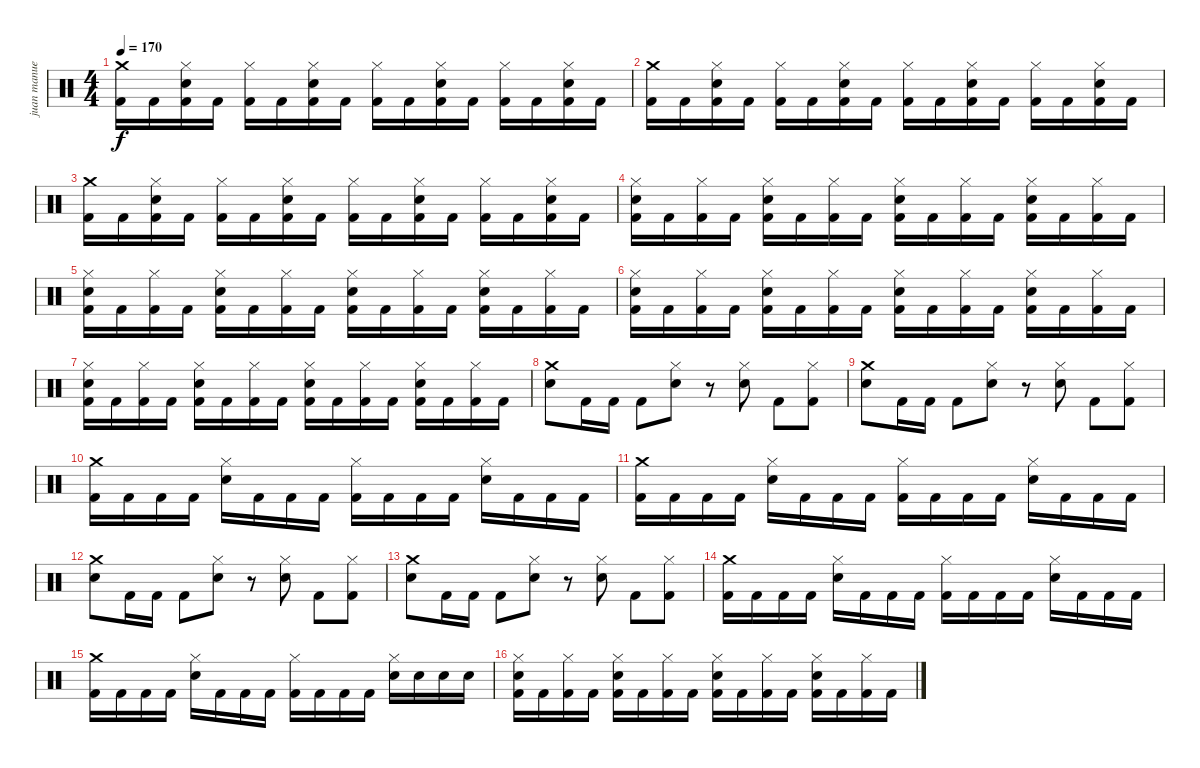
\track ("juan manuel" "juan manue") {instrument percussion}
\staff {score}
\articulation defaults
\ts (4 4)
\tempo 170
\clef neutral
\ks c
("Crash medium (hit)" "Kick (hit) 2").16{dy f} "Kick (hit) 2".16 ("Hi-Hat (closed)" "Electric Snare (hit)" "Kick (hit) 2").16 "Kick (hit) 2".16 ("Hi-Hat (closed)" "Kick (hit) 2").16 "Kick (hit) 2".16 ("Hi-Hat (closed)" "Electric Snare (hit)" "Kick (hit) 2").16 "Kick (hit) 2".16 ("Hi-Hat (closed)" "Kick (hit) 2").16 "Kick (hit) 2".16 ("Hi-Hat (closed)" "Electric Snare (hit)" "Kick (hit) 2").16 "Kick (hit) 2".16 ("Hi-Hat (closed)" "Kick (hit) 2").16 "Kick (hit) 2".16 ("Hi-Hat (closed)" "Electric Snare (hit)" "Kick (hit) 2").16 "Kick (hit) 2".16 |
("Crash medium (hit)" "Kick (hit) 2").16 "Kick (hit) 2".16 ("Hi-Hat (closed)" "Electric Snare (hit)" "Kick (hit) 2").16 "Kick (hit) 2".16 ("Hi-Hat (closed)" "Kick (hit) 2").16 "Kick (hit) 2".16 ("Hi-Hat (closed)" "Electric Snare (hit)" "Kick (hit) 2").16 "Kick (hit) 2".16 ("Hi-Hat (closed)" "Kick (hit) 2").16 "Kick (hit) 2".16 ("Hi-Hat (closed)" "Electric Snare (hit)" "Kick (hit) 2").16 "Kick (hit) 2".16 ("Hi-Hat (closed)" "Kick (hit) 2").16 "Kick (hit) 2".16 ("Hi-Hat (closed)" "Electric Snare (hit)" "Kick (hit) 2").16 "Kick (hit) 2".16 |
("Crash medium (hit)" "Kick (hit) 2").16 "Kick (hit) 2".16 ("Hi-Hat (closed)" "Electric Snare (hit)" "Kick (hit) 2").16 "Kick (hit) 2".16 ("Hi-Hat (closed)" "Kick (hit) 2").16 "Kick (hit) 2".16 ("Hi-Hat (closed)" "Electric Snare (hit)" "Kick (hit) 2").16 "Kick (hit) 2".16 ("Hi-Hat (closed)" "Kick (hit) 2").16 "Kick (hit) 2".16 ("Hi-Hat (closed)" "Electric Snare (hit)" "Kick (hit) 2").16 "Kick (hit) 2".16 ("Hi-Hat (closed)" "Kick (hit) 2").16 "Kick (hit) 2".16 ("Hi-Hat (closed)" "Electric Snare (hit)" "Kick (hit) 2").16 "Kick (hit) 2".16 |
("Hi-Hat (closed)" "Electric Snare (hit)" "Kick (hit) 2").16 "Kick (hit) 2".16 ("Hi-Hat (closed)" "Kick (hit) 2").16 "Kick (hit) 2".16 ("Hi-Hat (closed)" "Electric Snare (hit)" "Kick (hit) 2").16 "Kick (hit) 2".16 ("Hi-Hat (closed)" "Kick (hit) 2").16 "Kick (hit) 2".16 ("Hi-Hat (closed)" "Electric Snare (hit)" "Kick (hit) 2").16 "Kick (hit) 2".16 ("Hi-Hat (closed)" "Kick (hit) 2").16 "Kick (hit) 2".16 ("Hi-Hat (closed)" "Electric Snare (hit)" "Kick (hit) 2").16 "Kick (hit) 2".16 ("Hi-Hat (closed)" "Kick (hit) 2").16 "Kick (hit) 2".16 |
("Hi-Hat (closed)" "Electric Snare (hit)" "Kick (hit) 2").16 "Kick (hit) 2".16 ("Hi-Hat (closed)" "Kick (hit) 2").16 "Kick (hit) 2".16 ("Hi-Hat (closed)" "Electric Snare (hit)" "Kick (hit) 2").16 "Kick (hit) 2".16 ("Hi-Hat (closed)" "Kick (hit) 2").16 "Kick (hit) 2".16 ("Hi-Hat (closed)" "Electric Snare (hit)" "Kick (hit) 2").16 "Kick (hit) 2".16 ("Hi-Hat (closed)" "Kick (hit) 2").16 "Kick (hit) 2".16 ("Hi-Hat (closed)" "Electric Snare (hit)" "Kick (hit) 2").16 "Kick (hit) 2".16 ("Hi-Hat (closed)" "Kick (hit) 2").16 "Kick (hit) 2".16 |
("Hi-Hat (closed)" "Electric Snare (hit)" "Kick (hit) 2").16 "Kick (hit) 2".16 ("Hi-Hat (closed)" "Kick (hit) 2").16 "Kick (hit) 2".16 ("Hi-Hat (closed)" "Electric Snare (hit)" "Kick (hit) 2").16 "Kick (hit) 2".16 ("Hi-Hat (closed)" "Kick (hit) 2").16 "Kick (hit) 2".16 ("Hi-Hat (closed)" "Electric Snare (hit)" "Kick (hit) 2").16 "Kick (hit) 2".16 ("Hi-Hat (closed)" "Kick (hit) 2").16 "Kick (hit) 2".16 ("Hi-Hat (closed)" "Electric Snare (hit)" "Kick (hit) 2").16 "Kick (hit) 2".16 ("Hi-Hat (closed)" "Kick (hit) 2").16 "Kick (hit) 2".16 |
("Hi-Hat (closed)" "Electric Snare (hit)" "Kick (hit) 2").16 "Kick (hit) 2".16 ("Hi-Hat (closed)" "Kick (hit) 2").16 "Kick (hit) 2".16 ("Hi-Hat (closed)" "Electric Snare (hit)" "Kick (hit) 2").16 "Kick (hit) 2".16 ("Hi-Hat (closed)" "Kick (hit) 2").16 "Kick (hit) 2".16 ("Hi-Hat (closed)" "Electric Snare (hit)" "Kick (hit) 2").16 "Kick (hit) 2".16 ("Hi-Hat (closed)" "Kick (hit) 2").16 "Kick (hit) 2".16 ("Hi-Hat (closed)" "Electric Snare (hit)" "Kick (hit) 2").16 "Kick (hit) 2".16 ("Hi-Hat (closed)" "Kick (hit) 2").16 "Kick (hit) 2".16 |
("Crash medium (hit)" "Electric Snare (hit)").8 "Kick (hit) 2".16 "Kick (hit) 2".16 "Kick (hit) 2".8 ("Hi-Hat (closed)" "Electric Snare (hit)").8 r.8 ("Hi-Hat (closed)" "Electric Snare (hit)").8 "Kick (hit) 2".8 ("Hi-Hat (closed)" "Kick (hit) 2").8 |
("Crash medium (hit)" "Electric Snare (hit)").8 "Kick (hit) 2".16 "Kick (hit) 2".16 "Kick (hit) 2".8 ("Hi-Hat (closed)" "Electric Snare (hit)").8 r.8 ("Hi-Hat (closed)" "Electric Snare (hit)").8 "Kick (hit) 2".8 ("Hi-Hat (closed)" "Kick (hit) 2").8 |
("Crash medium (hit)" "Kick (hit) 2").16 "Kick (hit) 2".16 "Kick (hit) 2".16 "Kick (hit) 2".16 ("Hi-Hat (closed)" "Electric Snare (hit)").16 "Kick (hit) 2".16 "Kick (hit) 2".16 "Kick (hit) 2".16 ("Hi-Hat (closed)" "Kick (hit) 2").16 "Kick (hit) 2".16 "Kick (hit) 2".16 "Kick (hit) 2".16 ("Hi-Hat (closed)" "Electric Snare (hit)").16 "Kick (hit) 2".16 "Kick (hit) 2".16 "Kick (hit) 2".16 |
("Crash medium (hit)" "Kick (hit) 2").16 "Kick (hit) 2".16 "Kick (hit) 2".16 "Kick (hit) 2".16 ("Hi-Hat (closed)" "Electric Snare (hit)").16 "Kick (hit) 2".16 "Kick (hit) 2".16 "Kick (hit) 2".16 ("Hi-Hat (closed)" "Kick (hit) 2").16 "Kick (hit) 2".16 "Kick (hit) 2".16 "Kick (hit) 2".16 ("Hi-Hat (closed)" "Electric Snare (hit)").16 "Kick (hit) 2".16 "Kick (hit) 2".16 "Kick (hit) 2".16 |
("Crash medium (hit)" "Electric Snare (hit)").8 "Kick (hit) 2".16 "Kick (hit) 2".16 "Kick (hit) 2".8 ("Hi-Hat (closed)" "Electric Snare (hit)").8 r.8 ("Hi-Hat (closed)" "Electric Snare (hit)").8 "Kick (hit) 2".8 ("Hi-Hat (closed)" "Kick (hit) 2").8 |
("Crash medium (hit)" "Electric Snare (hit)").8 "Kick (hit) 2".16 "Kick (hit) 2".16 "Kick (hit) 2".8 ("Hi-Hat (closed)" "Electric Snare (hit)").8 r.8 ("Hi-Hat (closed)" "Electric Snare (hit)").8 "Kick (hit) 2".8 ("Hi-Hat (closed)" "Kick (hit) 2").8 |
("Crash medium (hit)" "Kick (hit) 2").16 "Kick (hit) 2".16 "Kick (hit) 2".16 "Kick (hit) 2".16 ("Hi-Hat (closed)" "Electric Snare (hit)").16 "Kick (hit) 2".16 "Kick (hit) 2".16 "Kick (hit) 2".16 ("Hi-Hat (closed)" "Kick (hit) 2").16 "Kick (hit) 2".16 "Kick (hit) 2".16 "Kick (hit) 2".16 ("Hi-Hat (closed)" "Electric Snare (hit)").16 "Kick (hit) 2".16 "Kick (hit) 2".16 "Kick (hit) 2".16 |
("Crash medium (hit)" "Kick (hit) 2").16 "Kick (hit) 2".16 "Kick (hit) 2".16 "Kick (hit) 2".16 ("Hi-Hat (closed)" "Electric Snare (hit)").16 "Kick (hit) 2".16 "Kick (hit) 2".16 "Kick (hit) 2".16 ("Hi-Hat (closed)" "Kick (hit) 2").16 "Kick (hit) 2".16 "Kick (hit) 2".16 "Kick (hit) 2".16 ("Hi-Hat (closed)" "Electric Snare (hit)").16 "Electric Snare (hit)".16 "Electric Snare (hit)".16 "Electric Snare (hit)".16 |
("Hi-Hat (closed)" "Electric Snare (hit)" "Kick (hit) 2").16 "Kick (hit) 2".16 ("Hi-Hat (closed)" "Kick (hit) 2").16 "Kick (hit) 2".16 ("Hi-Hat (closed)" "Electric Snare (hit)" "Kick (hit) 2").16 "Kick (hit) 2".16 ("Hi-Hat (closed)" "Kick (hit) 2").16 "Kick (hit) 2".16 ("Hi-Hat (closed)" "Electric Snare (hit)" "Kick (hit) 2").16 "Kick (hit) 2".16 ("Hi-Hat (closed)" "Kick (hit) 2").16 "Kick (hit) 2".16 ("Hi-Hat (closed)" "Electric Snare (hit)" "Kick (hit) 2").16 "Kick (hit) 2".16 ("Hi-Hat (closed)" "Kick (hit) 2").16 "Kick (hit) 2".16
